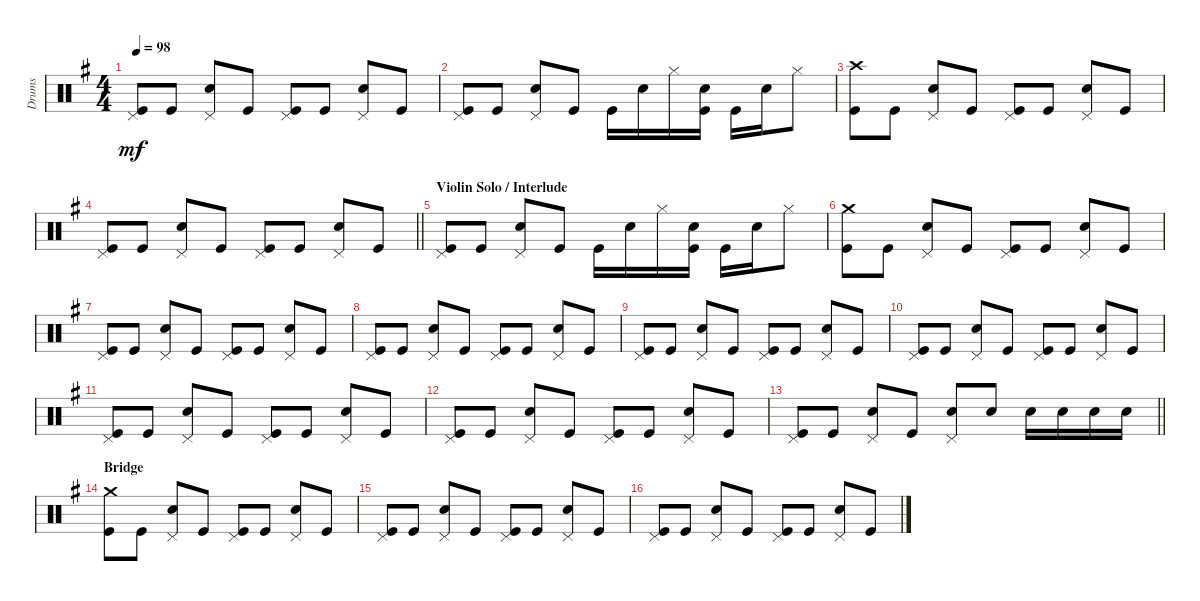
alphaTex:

\track ("Drums" "Drums") {instrument percussion}
\staff {score}
\articulation defaults
\ts (4 4)
\tempo 98
\clef neutral
\ks g
("Kick (hit)" "Pedal Hi-Hat (hit)").8{dy mf} "Kick (hit)".8 ("Snare (hit) 2" "Pedal Hi-Hat (hit)").8 "Kick (hit)".8 ("Kick (hit)" "Pedal Hi-Hat (hit)").8 "Kick (hit)".8 ("Snare (hit) 2" "Pedal Hi-Hat (hit)").8 "Kick (hit)".8 |
("Kick (hit)" "Pedal Hi-Hat (hit)").8 "Kick (hit)".8 ("Snare (hit) 2" "Pedal Hi-Hat (hit)").8 "Kick (hit)".8 "Kick (hit)".16 "Snare (hit) 2".16 "Hi-Hat (closed)".16 ("Kick (hit)" "Snare (hit) 2").16 "Kick (hit)".16 "Snare (hit) 2".16 "Hi-Hat (closed)".8 |
("Kick (hit)" "Crash high (hit)").8 "Kick (hit)".8 ("Snare (hit) 2" "Pedal Hi-Hat (hit)").8 "Kick (hit)".8 ("Kick (hit)" "Pedal Hi-Hat (hit)").8 "Kick (hit)".8 ("Snare (hit) 2" "Pedal Hi-Hat (hit)").8 "Kick (hit)".8 |
\barLineRight lightlight
("Kick (hit)" "Pedal Hi-Hat (hit)").8 "Kick (hit)".8 ("Snare (hit) 2" "Pedal Hi-Hat (hit)").8 "Kick (hit)".8 ("Kick (hit)" "Pedal Hi-Hat (hit)").8 "Kick (hit)".8 ("Snare (hit) 2" "Pedal Hi-Hat (hit)").8 "Kick (hit)".8 |
\section ("" "Violin Solo / Interlude")
("Kick (hit)" "Pedal Hi-Hat (hit)").8 "Kick (hit)".8 ("Snare (hit) 2" "Pedal Hi-Hat (hit)").8 "Kick (hit)".8 "Kick (hit)".16 "Snare (hit) 2".16 "Hi-Hat (closed)".16 ("Kick (hit)" "Snare (hit) 2").16 "Kick (hit)".16 "Snare (hit) 2".16 "Hi-Hat (closed)".8 |
("Kick (hit)" "Crash medium (hit)").8 "Kick (hit)".8 ("Snare (hit) 2" "Pedal Hi-Hat (hit)").8 "Kick (hit)".8 ("Kick (hit)" "Pedal Hi-Hat (hit)").8 "Kick (hit)".8 ("Snare (hit) 2" "Pedal Hi-Hat (hit)").8 "Kick (hit)".8 |
("Kick (hit)" "Pedal Hi-Hat (hit)").8 "Kick (hit)".8 ("Snare (hit) 2" "Pedal Hi-Hat (hit)").8 "Kick (hit)".8 ("Kick (hit)" "Pedal Hi-Hat (hit)").8 "Kick (hit)".8 ("Snare (hit) 2" "Pedal Hi-Hat (hit)").8 "Kick (hit)".8 |
("Kick (hit)" "Pedal Hi-Hat (hit)").8 "Kick (hit)".8 ("Snare (hit) 2" "Pedal Hi-Hat (hit)").8 "Kick (hit)".8 ("Kick (hit)" "Pedal Hi-Hat (hit)").8 "Kick (hit)".8 ("Snare (hit) 2" "Pedal Hi-Hat (hit)").8 "Kick (hit)".8 |
("Kick (hit)" "Pedal Hi-Hat (hit)").8 "Kick (hit)".8 ("Snare (hit) 2" "Pedal Hi-Hat (hit)").8 "Kick (hit)".8 ("Kick (hit)" "Pedal Hi-Hat (hit)").8 "Kick (hit)".8 ("Snare (hit) 2" "Pedal Hi-Hat (hit)").8 "Kick (hit)".8 |
("Kick (hit)" "Pedal Hi-Hat (hit)").8 "Kick (hit)".8 ("Snare (hit) 2" "Pedal Hi-Hat (hit)").8 "Kick (hit)".8 ("Kick (hit)" "Pedal Hi-Hat (hit)").8 "Kick (hit)".8 ("Snare (hit) 2" "Pedal Hi-Hat (hit)").8 "Kick (hit)".8 |
("Kick (hit)" "Pedal Hi-Hat (hit)").8 "Kick (hit)".8 ("Snare (hit) 2" "Pedal Hi-Hat (hit)").8 "Kick (hit)".8 ("Kick (hit)" "Pedal Hi-Hat (hit)").8 "Kick (hit)".8 ("Snare (hit) 2" "Pedal Hi-Hat (hit)").8 "Kick (hit)".8 |
("Kick (hit)" "Pedal Hi-Hat (hit)").8 "Kick (hit)".8 ("Snare (hit) 2" "Pedal Hi-Hat (hit)").8 "Kick (hit)".8 ("Kick (hit)" "Pedal Hi-Hat (hit)").8 "Kick (hit)".8 ("Snare (hit) 2" "Pedal Hi-Hat (hit)").8 "Kick (hit)".8 |
\barLineRight lightlight
("Kick (hit)" "Pedal Hi-Hat (hit)").8 "Kick (hit)".8 ("Snare (hit) 2" "Pedal Hi-Hat (hit)").8 "Kick (hit)".8 ("Snare (hit) 2" "Pedal Hi-Hat (hit)").8 "Snare (hit) 2".8 "Snare (hit) 2".16 "Snare (hit) 2".16 "Snare (hit) 2".16 "Snare (hit) 2".16 |
\section ("" "Bridge")
("Kick (hit)" "Crash medium (hit)").8 "Kick (hit)".8 ("Snare (hit) 2" "Pedal Hi-Hat (hit)").8 "Kick (hit)".8 ("Kick (hit)" "Pedal Hi-Hat (hit)").8 "Kick (hit)".8 ("Snare (hit) 2" "Pedal Hi-Hat (hit)").8 "Kick (hit)".8 |
("Kick (hit)" "Pedal Hi-Hat (hit)").8 "Kick (hit)".8 ("Snare (hit) 2" "Pedal Hi-Hat (hit)").8 "Kick (hit)".8 ("Kick (hit)" "Pedal Hi-Hat (hit)").8 "Kick (hit)".8 ("Snare (hit) 2" "Pedal Hi-Hat (hit)").8 "Kick (hit)".8 |
("Kick (hit)" "Pedal Hi-Hat (hit)").8 "Kick (hit)".8 ("Snare (hit) 2" "Pedal Hi-Hat (hit)").8 "Kick (hit)".8 ("Kick (hit)" "Pedal Hi-Hat (hit)").8 "Kick (hit)".8 ("Snare (hit) 2" "Pedal Hi-Hat (hit)").8 "Kick (hit)".8
